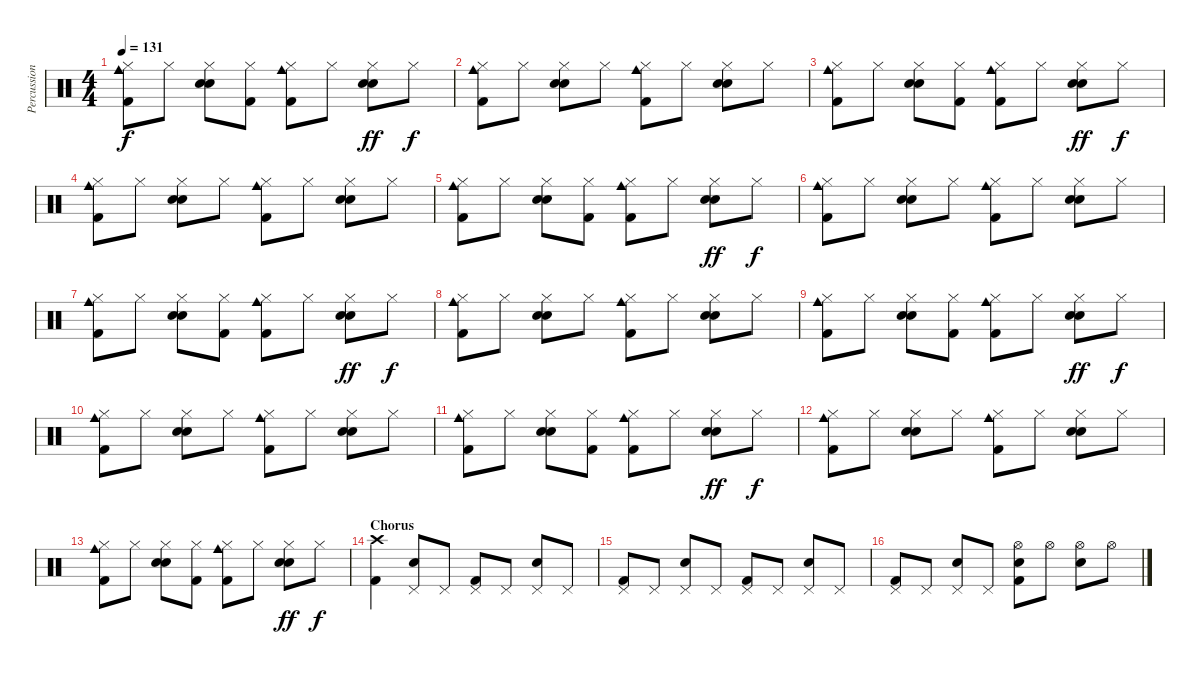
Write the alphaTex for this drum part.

\track ("Percussion" "Percussion") {instrument percussion}
\staff {score}
\articulation defaults
\ts (4 4)
\tempo 131
\clef neutral
\ks c
("Hi-Hat (closed)" "Cowbell medium (hit)" "Kick (hit) 2").8{dy f} "Hi-Hat (closed)".8 ("Hand Clap (hit)" "Hi-Hat (closed)" "Electric Snare (hit)").8 ("Hi-Hat (closed)" "Kick (hit) 2").8 ("Hi-Hat (closed)" "Cowbell medium (hit)" "Kick (hit) 2").8 "Hi-Hat (closed)".8 ("Hand Clap (hit)" "Hi-Hat (closed)" "Electric Snare (hit)").8{dy ff} "Hi-Hat (closed)".8{dy f} |
("Hi-Hat (closed)" "Cowbell medium (hit)" "Kick (hit) 2").8 "Hi-Hat (closed)".8 ("Hand Clap (hit)" "Hi-Hat (closed)" "Electric Snare (hit)").8 "Hi-Hat (closed)".8 ("Hi-Hat (closed)" "Cowbell medium (hit)" "Kick (hit) 2").8 "Hi-Hat (closed)".8 ("Hand Clap (hit)" "Hi-Hat (closed)" "Electric Snare (hit)").8 "Hi-Hat (closed)".8 |
("Hi-Hat (closed)" "Cowbell medium (hit)" "Kick (hit) 2").8 "Hi-Hat (closed)".8 ("Hand Clap (hit)" "Hi-Hat (closed)" "Electric Snare (hit)").8 ("Hi-Hat (closed)" "Kick (hit) 2").8 ("Hi-Hat (closed)" "Cowbell medium (hit)" "Kick (hit) 2").8 "Hi-Hat (closed)".8 ("Hand Clap (hit)" "Hi-Hat (closed)" "Electric Snare (hit)").8{dy ff} "Hi-Hat (closed)".8{dy f} |
("Hi-Hat (closed)" "Cowbell medium (hit)" "Kick (hit) 2").8 "Hi-Hat (closed)".8 ("Hand Clap (hit)" "Hi-Hat (closed)" "Electric Snare (hit)").8 "Hi-Hat (closed)".8 ("Hi-Hat (closed)" "Cowbell medium (hit)" "Kick (hit) 2").8 "Hi-Hat (closed)".8 ("Hand Clap (hit)" "Hi-Hat (closed)" "Electric Snare (hit)").8 "Hi-Hat (closed)".8 |
("Hi-Hat (closed)" "Cowbell medium (hit)" "Kick (hit) 2").8 "Hi-Hat (closed)".8 ("Hand Clap (hit)" "Hi-Hat (closed)" "Electric Snare (hit)").8 ("Hi-Hat (closed)" "Kick (hit) 2").8 ("Hi-Hat (closed)" "Cowbell medium (hit)" "Kick (hit) 2").8 "Hi-Hat (closed)".8 ("Hand Clap (hit)" "Hi-Hat (closed)" "Electric Snare (hit)").8{dy ff} "Hi-Hat (closed)".8{dy f} |
("Hi-Hat (closed)" "Cowbell medium (hit)" "Kick (hit) 2").8 "Hi-Hat (closed)".8 ("Hand Clap (hit)" "Hi-Hat (closed)" "Electric Snare (hit)").8 "Hi-Hat (closed)".8 ("Hi-Hat (closed)" "Cowbell medium (hit)" "Kick (hit) 2").8 "Hi-Hat (closed)".8 ("Hand Clap (hit)" "Hi-Hat (closed)" "Electric Snare (hit)").8 "Hi-Hat (closed)".8 |
("Hi-Hat (closed)" "Cowbell medium (hit)" "Kick (hit) 2").8 "Hi-Hat (closed)".8 ("Hand Clap (hit)" "Hi-Hat (closed)" "Electric Snare (hit)").8 ("Hi-Hat (closed)" "Kick (hit) 2").8 ("Hi-Hat (closed)" "Cowbell medium (hit)" "Kick (hit) 2").8 "Hi-Hat (closed)".8 ("Hand Clap (hit)" "Hi-Hat (closed)" "Electric Snare (hit)").8{dy ff} "Hi-Hat (closed)".8{dy f} |
("Hi-Hat (closed)" "Cowbell medium (hit)" "Kick (hit) 2").8 "Hi-Hat (closed)".8 ("Hand Clap (hit)" "Hi-Hat (closed)" "Electric Snare (hit)").8 "Hi-Hat (closed)".8 ("Hi-Hat (closed)" "Cowbell medium (hit)" "Kick (hit) 2").8 "Hi-Hat (closed)".8 ("Hand Clap (hit)" "Hi-Hat (closed)" "Electric Snare (hit)").8 "Hi-Hat (closed)".8 |
("Hi-Hat (closed)" "Cowbell medium (hit)" "Kick (hit) 2").8 "Hi-Hat (closed)".8 ("Hand Clap (hit)" "Hi-Hat (closed)" "Electric Snare (hit)").8 ("Hi-Hat (closed)" "Kick (hit) 2").8 ("Hi-Hat (closed)" "Cowbell medium (hit)" "Kick (hit) 2").8 "Hi-Hat (closed)".8 ("Hand Clap (hit)" "Hi-Hat (closed)" "Electric Snare (hit)").8{dy ff} "Hi-Hat (closed)".8{dy f} |
("Hi-Hat (closed)" "Cowbell medium (hit)" "Kick (hit) 2").8 "Hi-Hat (closed)".8 ("Hand Clap (hit)" "Hi-Hat (closed)" "Electric Snare (hit)").8 "Hi-Hat (closed)".8 ("Hi-Hat (closed)" "Cowbell medium (hit)" "Kick (hit) 2").8 "Hi-Hat (closed)".8 ("Hand Clap (hit)" "Hi-Hat (closed)" "Electric Snare (hit)").8 "Hi-Hat (closed)".8 |
("Hi-Hat (closed)" "Cowbell medium (hit)" "Kick (hit) 2").8 "Hi-Hat (closed)".8 ("Hand Clap (hit)" "Hi-Hat (closed)" "Electric Snare (hit)").8 ("Hi-Hat (closed)" "Kick (hit) 2").8 ("Hi-Hat (closed)" "Cowbell medium (hit)" "Kick (hit) 2").8 "Hi-Hat (closed)".8 ("Hand Clap (hit)" "Hi-Hat (closed)" "Electric Snare (hit)").8{dy ff} "Hi-Hat (closed)".8{dy f} |
("Hi-Hat (closed)" "Cowbell medium (hit)" "Kick (hit) 2").8 "Hi-Hat (closed)".8 ("Hand Clap (hit)" "Hi-Hat (closed)" "Electric Snare (hit)").8 "Hi-Hat (closed)".8 ("Hi-Hat (closed)" "Cowbell medium (hit)" "Kick (hit) 2").8 "Hi-Hat (closed)".8 ("Hand Clap (hit)" "Hi-Hat (closed)" "Electric Snare (hit)").8 "Hi-Hat (closed)".8 |
("Hi-Hat (closed)" "Cowbell medium (hit)" "Kick (hit) 2").8 "Hi-Hat (closed)".8 ("Hand Clap (hit)" "Hi-Hat (closed)" "Electric Snare (hit)").8 ("Hi-Hat (closed)" "Kick (hit) 2").8 ("Hi-Hat (closed)" "Cowbell medium (hit)" "Kick (hit) 2").8 "Hi-Hat (closed)".8 ("Hand Clap (hit)" "Hi-Hat (closed)" "Electric Snare (hit)").8{dy ff} "Hi-Hat (closed)".8{dy f} |
\section ("" "Chorus")
("Crash high (hit)" "Kick (hit) 2").4 ("Pedal Hi-Hat (hit)" "Electric Snare (hit)").8 "Pedal Hi-Hat (hit)".8 ("Pedal Hi-Hat (hit)" "Kick (hit) 2").8 "Pedal Hi-Hat (hit)".8 ("Pedal Hi-Hat (hit)" "Electric Snare (hit)").8 "Pedal Hi-Hat (hit)".8 |
("Pedal Hi-Hat (hit)" "Kick (hit) 2").8 "Pedal Hi-Hat (hit)".8 ("Pedal Hi-Hat (hit)" "Electric Snare (hit)").8 "Pedal Hi-Hat (hit)".8 ("Pedal Hi-Hat (hit)" "Kick (hit) 2").8 "Pedal Hi-Hat (hit)".8 ("Pedal Hi-Hat (hit)" "Electric Snare (hit)").8 "Pedal Hi-Hat (hit)".8 |
("Pedal Hi-Hat (hit)" "Kick (hit) 2").8 "Pedal Hi-Hat (hit)".8 ("Pedal Hi-Hat (hit)" "Electric Snare (hit)").8 "Pedal Hi-Hat (hit)".8 ("Hi-Hat (open)" "Electric Snare (hit)" "Kick (hit) 2").8 "Hi-Hat (open)".8 ("Hi-Hat (open)" "Electric Snare (hit)").8 "Hi-Hat (open)".8
